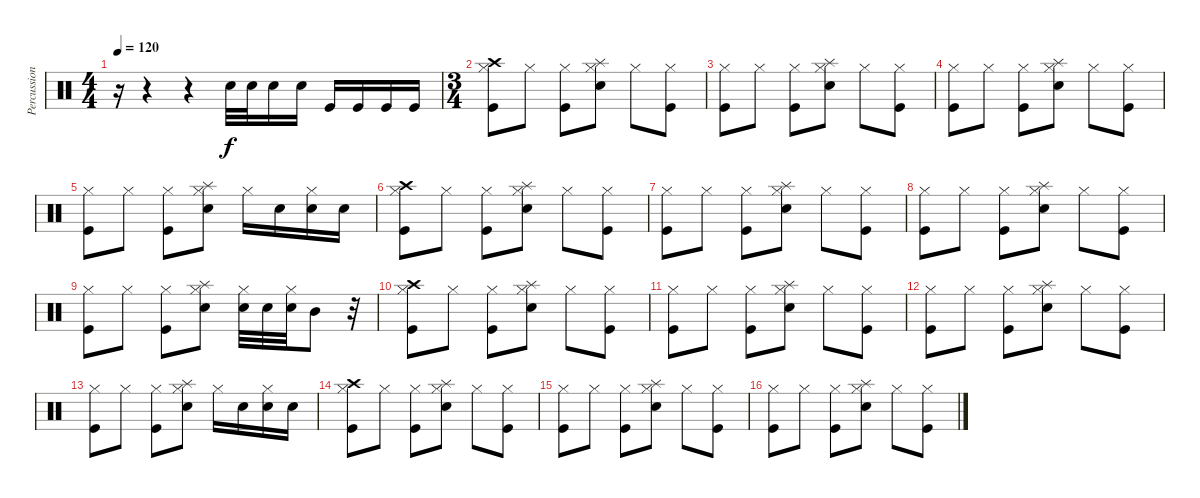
\track ("Percussion" "Percussion") {instrument percussion}
\staff {score}
\articulation defaults
\ts (4 4)
\tempo 120
\clef neutral
\ks c
r.16{dy f} r.4 r.4 "Snare (hit) 2".32 "Snare (hit) 2".32 "Snare (hit) 2".16 "Snare (hit) 2".16 "Kick (hit)".16 "Kick (hit)".16 "Kick (hit)".16 "Kick (hit)".16 |
\ts (3 4)
("Hi-Hat (closed)" "Crash high (hit)" "Kick (hit)").8 "Hi-Hat (closed)".8 ("Hi-Hat (closed)" "Kick (hit)").8 ("Hi-Hat (closed)" "Splash (hit)" "Electric Snare (hit)").8 "Hi-Hat (closed)".8 ("Hi-Hat (closed)" "Kick (hit)").8 |
("Hi-Hat (closed)" "Kick (hit)").8 "Hi-Hat (closed)".8 ("Hi-Hat (closed)" "Kick (hit)").8 ("Hi-Hat (closed)" "Splash (hit)" "Electric Snare (hit)").8 "Hi-Hat (closed)".8 ("Hi-Hat (closed)" "Kick (hit)").8 |
("Hi-Hat (closed)" "Kick (hit)").8 "Hi-Hat (closed)".8 ("Hi-Hat (closed)" "Kick (hit)").8 ("Hi-Hat (closed)" "Splash (hit)" "Electric Snare (hit)").8 "Hi-Hat (closed)".8 ("Hi-Hat (closed)" "Kick (hit)").8 |
("Hi-Hat (closed)" "Kick (hit)").8 "Hi-Hat (closed)".8 ("Hi-Hat (closed)" "Kick (hit)").8 ("Hi-Hat (closed)" "Splash (hit)" "Electric Snare (hit)").8 "Hi-Hat (closed)".16 "Snare (hit) 2".16 ("Hi-Hat (closed)" "Snare (hit) 2").16 "Snare (hit) 2".16 |
("Hi-Hat (closed)" "Crash high (hit)" "Kick (hit)").8 "Hi-Hat (closed)".8 ("Hi-Hat (closed)" "Kick (hit)").8 ("Hi-Hat (closed)" "Splash (hit)" "Electric Snare (hit)").8 "Hi-Hat (closed)".8 ("Hi-Hat (closed)" "Kick (hit)").8 |
("Hi-Hat (closed)" "Kick (hit)").8 "Hi-Hat (closed)".8 ("Hi-Hat (closed)" "Kick (hit)").8 ("Hi-Hat (closed)" "Splash (hit)" "Electric Snare (hit)").8 "Hi-Hat (closed)".8 ("Hi-Hat (closed)" "Kick (hit)").8 |
("Hi-Hat (closed)" "Kick (hit)").8 "Hi-Hat (closed)".8 ("Hi-Hat (closed)" "Kick (hit)").8 ("Hi-Hat (closed)" "Splash (hit)" "Electric Snare (hit)").8 "Hi-Hat (closed)".8 ("Hi-Hat (closed)" "Kick (hit)").8 |
("Hi-Hat (closed)" "Kick (hit)").8 "Hi-Hat (closed)".8 ("Hi-Hat (closed)" "Kick (hit)").8 ("Hi-Hat (closed)" "Splash (hit)" "Snare (hit) 2").8 ("Hi-Hat (closed)" "Snare (hit) 2").32 "Snare (hit) 2".32 ("Hi-Hat (closed)" "Snare (hit) 2").32 "Mid Tom (hit)".8 r.32 |
("Hi-Hat (closed)" "Crash high (hit)" "Kick (hit)").8 "Hi-Hat (closed)".8 ("Hi-Hat (closed)" "Kick (hit)").8 ("Hi-Hat (closed)" "Splash (hit)" "Electric Snare (hit)").8 "Hi-Hat (closed)".8 ("Hi-Hat (closed)" "Kick (hit)").8 |
("Hi-Hat (closed)" "Kick (hit)").8 "Hi-Hat (closed)".8 ("Hi-Hat (closed)" "Kick (hit)").8 ("Hi-Hat (closed)" "Splash (hit)" "Electric Snare (hit)").8 "Hi-Hat (closed)".8 ("Hi-Hat (closed)" "Kick (hit)").8 |
("Hi-Hat (closed)" "Kick (hit)").8 "Hi-Hat (closed)".8 ("Hi-Hat (closed)" "Kick (hit)").8 ("Hi-Hat (closed)" "Splash (hit)" "Electric Snare (hit)").8 "Hi-Hat (closed)".8 ("Hi-Hat (closed)" "Kick (hit)").8 |
("Hi-Hat (closed)" "Kick (hit)").8 "Hi-Hat (closed)".8 ("Hi-Hat (closed)" "Kick (hit)").8 ("Hi-Hat (closed)" "Splash (hit)" "Electric Snare (hit)").8 "Hi-Hat (closed)".16 "Snare (hit) 2".16 ("Hi-Hat (closed)" "Snare (hit) 2").16 "Snare (hit) 2".16 |
("Hi-Hat (closed)" "Crash high (hit)" "Kick (hit)").8 "Hi-Hat (closed)".8 ("Hi-Hat (closed)" "Kick (hit)").8 ("Hi-Hat (closed)" "Splash (hit)" "Electric Snare (hit)").8 "Hi-Hat (closed)".8 ("Hi-Hat (closed)" "Kick (hit)").8 |
("Hi-Hat (closed)" "Kick (hit)").8 "Hi-Hat (closed)".8 ("Hi-Hat (closed)" "Kick (hit)").8 ("Hi-Hat (closed)" "Splash (hit)" "Electric Snare (hit)").8 "Hi-Hat (closed)".8 ("Hi-Hat (closed)" "Kick (hit)").8 |
("Hi-Hat (closed)" "Kick (hit)").8 "Hi-Hat (closed)".8 ("Hi-Hat (closed)" "Kick (hit)").8 ("Hi-Hat (closed)" "Splash (hit)" "Electric Snare (hit)").8 "Hi-Hat (closed)".8 ("Hi-Hat (closed)" "Kick (hit)").8
